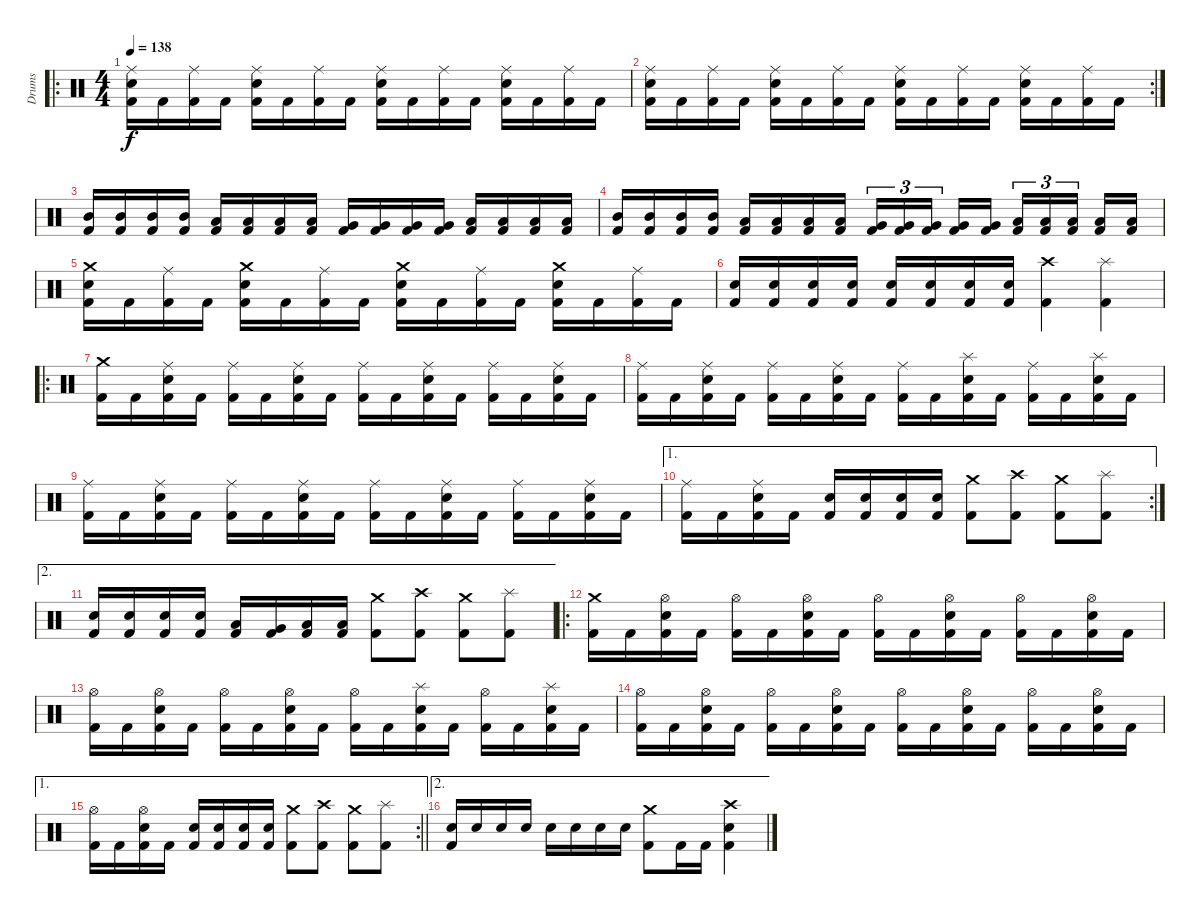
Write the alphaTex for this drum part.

\track ("Drums" "Drums") {instrument percussion}
\staff {score}
\articulation defaults
\ro
\ts (4 4)
\tempo 138
\clef neutral
\ks c
("Ride (middle)" "Electric Snare (hit)" "Kick (hit) 2").16{dy f} "Kick (hit) 2".16 ("Ride (middle)" "Kick (hit) 2").16 "Kick (hit) 2".16 ("Ride (middle)" "Electric Snare (hit)" "Kick (hit) 2").16 "Kick (hit) 2".16 ("Ride (middle)" "Kick (hit) 2").16 "Kick (hit) 2".16 ("Ride (middle)" "Electric Snare (hit)" "Kick (hit) 2").16 "Kick (hit) 2".16 ("Ride (middle)" "Kick (hit) 2").16 "Kick (hit) 2".16 ("Ride (middle)" "Electric Snare (hit)" "Kick (hit) 2").16 "Kick (hit) 2".16 ("Ride (middle)" "Kick (hit) 2").16 "Kick (hit) 2".16 |
\rc 2
("Ride (middle)" "Electric Snare (hit)" "Kick (hit) 2").16 "Kick (hit) 2".16 ("Ride (middle)" "Kick (hit) 2").16 "Kick (hit) 2".16 ("Ride (middle)" "Electric Snare (hit)" "Kick (hit) 2").16 "Kick (hit) 2".16 ("Ride (middle)" "Kick (hit) 2").16 "Kick (hit) 2".16 ("Ride (middle)" "Electric Snare (hit)" "Kick (hit) 2").16 "Kick (hit) 2".16 ("Ride (middle)" "Kick (hit) 2").16 "Kick (hit) 2".16 ("Ride (middle)" "Electric Snare (hit)" "Kick (hit) 2").16 "Kick (hit) 2".16 ("Ride (middle)" "Kick (hit) 2").16 "Kick (hit) 2".16 |
("Mid Tom (hit)" "Kick (hit) 2").16 ("Mid Tom (hit)" "Kick (hit) 2").16 ("Mid Tom (hit)" "Kick (hit) 2").16 ("Mid Tom (hit)" "Kick (hit) 2").16 ("Low Tom (hit)" "Kick (hit) 2").16 ("Low Tom (hit)" "Kick (hit) 2").16 ("Low Tom (hit)" "Kick (hit) 2").16 ("Low Tom (hit)" "Kick (hit) 2").16 ("Very Low Tom (hit)" "Kick (hit) 2").16 ("Very Low Tom (hit)" "Kick (hit) 2").16 ("Very Low Tom (hit)" "Kick (hit) 2").16 ("Very Low Tom (hit)" "Kick (hit) 2").16 ("Low Floor Tom (hit)" "Kick (hit) 2").16 ("Low Floor Tom (hit)" "Kick (hit) 2").16 ("Low Floor Tom (hit)" "Kick (hit) 2").16 ("Low Floor Tom (hit)" "Kick (hit) 2").16 |
("Mid Tom (hit)" "Kick (hit) 2").16 ("Mid Tom (hit)" "Kick (hit) 2").16 ("Mid Tom (hit)" "Kick (hit) 2").16 ("Mid Tom (hit)" "Kick (hit) 2").16 ("Low Tom (hit)" "Kick (hit) 2").16 ("Low Tom (hit)" "Kick (hit) 2").16 ("Low Tom (hit)" "Kick (hit) 2").16 ("Low Tom (hit)" "Kick (hit) 2").16 ("Very Low Tom (hit)" "Kick (hit) 2").16{tu (3 2)} ("Very Low Tom (hit)" "Kick (hit) 2").16{tu (3 2)} ("Very Low Tom (hit)" "Kick (hit) 2").16{tu (3 2) beam splitsecondary} ("Very Low Tom (hit)" "Kick (hit) 2").16 ("Very Low Tom (hit)" "Kick (hit) 2").16 ("Low Floor Tom (hit)" "Kick (hit) 2").16{tu (3 2)} ("Low Floor Tom (hit)" "Kick (hit) 2").16{tu (3 2)} ("Low Floor Tom (hit)" "Kick (hit) 2").16{tu (3 2) beam splitsecondary} ("Low Floor Tom (hit)" "Kick (hit) 2").16 ("Low Floor Tom (hit)" "Kick (hit) 2").16 |
("Crash medium (hit)" "Electric Snare (hit)" "Kick (hit) 2").16 "Kick (hit) 2".16 ("Ride (middle)" "Kick (hit) 2").16 "Kick (hit) 2".16 ("Crash medium (hit)" "Electric Snare (hit)" "Kick (hit) 2").16 "Kick (hit) 2".16 ("Ride (middle)" "Kick (hit) 2").16 "Kick (hit) 2".16 ("Crash medium (hit)" "Electric Snare (hit)" "Kick (hit) 2").16 "Kick (hit) 2".16 ("Ride (middle)" "Kick (hit) 2").16 "Kick (hit) 2".16 ("Crash medium (hit)" "Electric Snare (hit)" "Kick (hit) 2").16 "Kick (hit) 2".16 ("Ride (middle)" "Kick (hit) 2").16 "Kick (hit) 2".16 |
("Electric Snare (hit)" "Kick (hit) 2").16 ("Electric Snare (hit)" "Kick (hit) 2").16 ("Electric Snare (hit)" "Kick (hit) 2").16 ("Electric Snare (hit)" "Kick (hit) 2").16 ("Electric Snare (hit)" "Kick (hit) 2").16 ("Electric Snare (hit)" "Kick (hit) 2").16 ("Electric Snare (hit)" "Kick (hit) 2").16 ("Electric Snare (hit)" "Kick (hit) 2").16 ("Crash high (hit)" "Kick (hit) 2").4 ("Splash (hit)" "Kick (hit) 2").4 |
\ro
("Crash medium (hit)" "Kick (hit) 2").16 "Kick (hit) 2".16 ("Ride (middle)" "Electric Snare (hit)" "Kick (hit) 2").16 "Kick (hit) 2".16 ("Ride (middle)" "Kick (hit) 2").16 "Kick (hit) 2".16 ("Ride (middle)" "Electric Snare (hit)" "Kick (hit) 2").16 "Kick (hit) 2".16 ("Ride (middle)" "Kick (hit) 2").16 "Kick (hit) 2".16 ("Ride (middle)" "Electric Snare (hit)" "Kick (hit) 2").16 "Kick (hit) 2".16 ("Ride (middle)" "Kick (hit) 2").16 "Kick (hit) 2".16 ("Ride (middle)" "Electric Snare (hit)" "Kick (hit) 2").16 "Kick (hit) 2".16 |
("Ride (middle)" "Kick (hit) 2").16 "Kick (hit) 2".16 ("Ride (middle)" "Electric Snare (hit)" "Kick (hit) 2").16 "Kick (hit) 2".16 ("Ride (middle)" "Kick (hit) 2").16 "Kick (hit) 2".16 ("Ride (middle)" "Electric Snare (hit)" "Kick (hit) 2").16 "Kick (hit) 2".16 ("Ride (middle)" "Kick (hit) 2").16 "Kick (hit) 2".16 ("Splash (hit)" "Electric Snare (hit)" "Kick (hit) 2").16 "Kick (hit) 2".16 ("Ride (middle)" "Kick (hit) 2").16 "Kick (hit) 2".16 ("Splash (hit)" "Electric Snare (hit)" "Kick (hit) 2").16 "Kick (hit) 2".16 |
("Ride (middle)" "Kick (hit) 2").16 "Kick (hit) 2".16 ("Ride (middle)" "Electric Snare (hit)" "Kick (hit) 2").16 "Kick (hit) 2".16 ("Ride (middle)" "Kick (hit) 2").16 "Kick (hit) 2".16 ("Ride (middle)" "Electric Snare (hit)" "Kick (hit) 2").16 "Kick (hit) 2".16 ("Ride (middle)" "Kick (hit) 2").16 "Kick (hit) 2".16 ("Ride (middle)" "Electric Snare (hit)" "Kick (hit) 2").16 "Kick (hit) 2".16 ("Ride (middle)" "Kick (hit) 2").16 "Kick (hit) 2".16 ("Ride (middle)" "Electric Snare (hit)" "Kick (hit) 2").16 "Kick (hit) 2".16 |
\ae 1
\rc 2
("Ride (middle)" "Kick (hit) 2").16 "Kick (hit) 2".16 ("Ride (middle)" "Electric Snare (hit)" "Kick (hit) 2").16 "Kick (hit) 2".16 ("Electric Snare (hit)" "Kick (hit) 2").16 ("Electric Snare (hit)" "Kick (hit) 2").16 ("Electric Snare (hit)" "Kick (hit) 2").16 ("Electric Snare (hit)" "Kick (hit) 2").16 ("Crash medium (hit)" "Kick (hit) 2").8 ("Crash high (hit)" "Kick (hit) 2").8 ("Crash medium (hit)" "Kick (hit) 2").8 ("Splash (hit)" "Kick (hit) 2").8 |
\ae 2
("Electric Snare (hit)" "Kick (hit) 2").16 ("Electric Snare (hit)" "Kick (hit) 2").16 ("Electric Snare (hit)" "Kick (hit) 2").16 ("Electric Snare (hit)" "Kick (hit) 2").16 ("Low Tom (hit)" "Kick (hit) 2").16 ("Very Low Tom (hit)" "Kick (hit) 2").16 ("Low Floor Tom (hit)" "Kick (hit) 2").16 ("Low Floor Tom (hit)" "Kick (hit) 2").16 ("Crash medium (hit)" "Kick (hit) 2").8 ("Crash high (hit)" "Kick (hit) 2").8 ("Crash medium (hit)" "Kick (hit) 2").8 ("Splash (hit)" "Kick (hit) 2").8 |
\ro
("Crash medium (hit)" "Kick (hit) 2").16 "Kick (hit) 2".16 ("Hi-Hat (open)" "Electric Snare (hit)" "Kick (hit) 2").16 "Kick (hit) 2".16 ("Hi-Hat (open)" "Kick (hit) 2").16 "Kick (hit) 2".16 ("Hi-Hat (open)" "Electric Snare (hit)" "Kick (hit) 2").16 "Kick (hit) 2".16 ("Hi-Hat (open)" "Kick (hit) 2").16 "Kick (hit) 2".16 ("Hi-Hat (open)" "Electric Snare (hit)" "Kick (hit) 2").16 "Kick (hit) 2".16 ("Hi-Hat (open)" "Kick (hit) 2").16 "Kick (hit) 2".16 ("Hi-Hat (open)" "Electric Snare (hit)" "Kick (hit) 2").16 "Kick (hit) 2".16 |
("Hi-Hat (open)" "Kick (hit) 2").16 "Kick (hit) 2".16 ("Hi-Hat (open)" "Electric Snare (hit)" "Kick (hit) 2").16 "Kick (hit) 2".16 ("Hi-Hat (open)" "Kick (hit) 2").16 "Kick (hit) 2".16 ("Hi-Hat (open)" "Electric Snare (hit)" "Kick (hit) 2").16 "Kick (hit) 2".16 ("Hi-Hat (open)" "Kick (hit) 2").16 "Kick (hit) 2".16 ("Splash (hit)" "Electric Snare (hit)" "Kick (hit) 2").16 "Kick (hit) 2".16 ("Hi-Hat (open)" "Kick (hit) 2").16 "Kick (hit) 2".16 ("Splash (hit)" "Electric Snare (hit)" "Kick (hit) 2").16 "Kick (hit) 2".16 |
("Hi-Hat (open)" "Kick (hit) 2").16 "Kick (hit) 2".16 ("Hi-Hat (open)" "Electric Snare (hit)" "Kick (hit) 2").16 "Kick (hit) 2".16 ("Hi-Hat (open)" "Kick (hit) 2").16 "Kick (hit) 2".16 ("Hi-Hat (open)" "Electric Snare (hit)" "Kick (hit) 2").16 "Kick (hit) 2".16 ("Hi-Hat (open)" "Kick (hit) 2").16 "Kick (hit) 2".16 ("Hi-Hat (open)" "Electric Snare (hit)" "Kick (hit) 2").16 "Kick (hit) 2".16 ("Hi-Hat (open)" "Kick (hit) 2").16 "Kick (hit) 2".16 ("Hi-Hat (open)" "Electric Snare (hit)" "Kick (hit) 2").16 "Kick (hit) 2".16 |
\ae 1
\rc 2
\barLineRight lightlight
("Hi-Hat (open)" "Kick (hit) 2").16 "Kick (hit) 2".16 ("Hi-Hat (open)" "Electric Snare (hit)" "Kick (hit) 2").16 "Kick (hit) 2".16 ("Electric Snare (hit)" "Kick (hit) 2").16 ("Electric Snare (hit)" "Kick (hit) 2").16 ("Electric Snare (hit)" "Kick (hit) 2").16 ("Electric Snare (hit)" "Kick (hit) 2").16 ("Crash medium (hit)" "Kick (hit) 2").8 ("Crash high (hit)" "Kick (hit) 2").8 ("Crash medium (hit)" "Kick (hit) 2").8 ("Splash (hit)" "Kick (hit) 2").8 |
\ae 2
("Electric Snare (hit)" "Kick (hit) 2").16 "Electric Snare (hit)".16 "Electric Snare (hit)".16 "Electric Snare (hit)".16 "Electric Snare (hit)".16 "Electric Snare (hit)".16 "Electric Snare (hit)".16 "Electric Snare (hit)".16 ("Crash medium (hit)" "Kick (hit) 2").8 "Kick (hit) 2".16 "Kick (hit) 2".16 ("Crash high (hit)" "Electric Snare (hit)" "Kick (hit) 2").4
